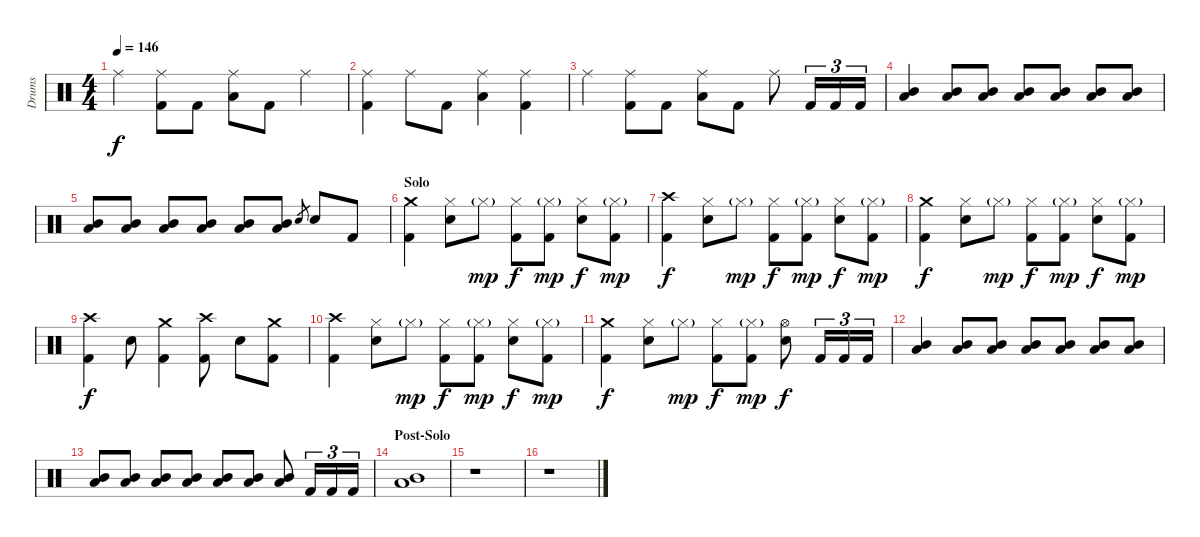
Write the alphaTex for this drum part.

\track ("Drums" "Drums") {instrument percussion}
\staff {score}
\articulation defaults
\ts (4 4)
\tempo 146
\clef neutral
\ks c "Ride (middle)".4{dy f}
("Ride (middle)" "Kick (hit) 2").8 "Kick (hit) 2".8 ("Ride (middle)" "Low Floor Tom (hit)").8 "Kick (hit) 2".8 "Ride (middle)".4 |
("Ride (middle)" "Kick (hit) 2").4 "Ride (middle)".8 "Kick (hit) 2".8 ("Ride (middle)" "Low Floor Tom (hit)").4 ("Ride (middle)" "Kick (hit) 2").4 |
"Ride (middle)".4 ("Ride (middle)" "Kick (hit) 2").8 "Kick (hit) 2".8 ("Ride (middle)" "Low Floor Tom (hit)").8 "Kick (hit) 2".8 "Ride (middle)".8 "Kick (hit) 2".16{tu (3 2)} "Kick (hit) 2".16{tu (3 2)} "Kick (hit) 2".16{tu (3 2)} |
("Mid Tom (hit)" "Low Floor Tom (hit)").4{volume 10} ("Mid Tom (hit)" "Low Floor Tom (hit)").8{volume 8} ("Mid Tom (hit)" "Low Floor Tom (hit)").8{volume 9} ("Mid Tom (hit)" "Low Floor Tom (hit)").8{volume 10} ("Mid Tom (hit)" "Low Floor Tom (hit)").8{volume 11} ("Mid Tom (hit)" "Low Floor Tom (hit)").8{volume 12} ("Mid Tom (hit)" "Low Floor Tom (hit)").8{volume 13} |
("Mid Tom (hit)" "Low Floor Tom (hit)").8{volume 14} ("Mid Tom (hit)" "Low Floor Tom (hit)").8 ("Mid Tom (hit)" "Low Floor Tom (hit)").8 ("Mid Tom (hit)" "Low Floor Tom (hit)").8 ("Mid Tom (hit)" "Low Floor Tom (hit)").8 ("Mid Tom (hit)" "Low Floor Tom (hit)").8 "Snare (hit) 2".8{gr} "Snare (hit) 2".8 "Kick (hit) 2".8 |
\section ("" "Solo")
("Crash medium (hit)" "Kick (hit) 2").4 ("Hi-Hat (closed)" "Snare (hit) 2").8 "Hi-Hat (closed)"{g}.8{dy mp} ("Hi-Hat (closed)" "Kick (hit) 2").8{dy f} ("Hi-Hat (closed)"{g} "Kick (hit) 2").8{dy mp} ("Hi-Hat (closed)" "Snare (hit) 2").8{dy f} ("Hi-Hat (closed)"{g} "Kick (hit) 2").8{dy mp} |
("Crash high (hit)" "Kick (hit) 2").4{dy f} ("Hi-Hat (closed)" "Snare (hit) 2").8 "Hi-Hat (closed)"{g}.8{dy mp} ("Hi-Hat (closed)" "Kick (hit) 2").8{dy f} ("Hi-Hat (closed)"{g} "Kick (hit) 2").8{dy mp} ("Hi-Hat (closed)" "Snare (hit) 2").8{dy f} ("Hi-Hat (closed)"{g} "Kick (hit) 2").8{dy mp} |
("Crash medium (hit)" "Kick (hit) 2").4{dy f} ("Hi-Hat (closed)" "Snare (hit) 2").8 "Hi-Hat (closed)"{g}.8{dy mp} ("Hi-Hat (closed)" "Kick (hit) 2").8{dy f} ("Hi-Hat (closed)"{g} "Kick (hit) 2").8{dy mp} ("Hi-Hat (closed)" "Snare (hit) 2").8{dy f} ("Hi-Hat (closed)"{g} "Kick (hit) 2").8{dy mp} |
("Crash high (hit)" "Kick (hit) 2").4{dy f} "Snare (hit) 2".8 ("Crash medium (hit)" "Kick (hit) 2").4 ("Crash high (hit)" "Kick (hit) 2").8 "Snare (hit) 2".8 ("Crash medium (hit)" "Kick (hit) 2").8 |
("Crash high (hit)" "Kick (hit) 2").4 ("Hi-Hat (closed)" "Snare (hit) 2").8 "Hi-Hat (closed)"{g}.8{dy mp} ("Hi-Hat (closed)" "Kick (hit) 2").8{dy f} ("Hi-Hat (closed)"{g} "Kick (hit) 2").8{dy mp} ("Hi-Hat (closed)" "Snare (hit) 2").8{dy f} ("Hi-Hat (closed)"{g} "Kick (hit) 2").8{dy mp} |
("Crash medium (hit)" "Kick (hit) 2").4{dy f} ("Hi-Hat (closed)" "Snare (hit) 2").8 "Hi-Hat (closed)"{g}.8{dy mp} ("Hi-Hat (closed)" "Kick (hit) 2").8{dy f} ("Hi-Hat (closed)"{g} "Kick (hit) 2").8{dy mp} ("Hi-Hat (open)" "Snare (hit) 2").8{dy f} "Kick (hit) 2".16{tu (3 2)} "Kick (hit) 2".16{tu (3 2)} "Kick (hit) 2".16{tu (3 2)} |
("Mid Tom (hit)" "Low Floor Tom (hit)").4{volume 10} ("Mid Tom (hit)" "Low Floor Tom (hit)").8{volume 8} ("Mid Tom (hit)" "Low Floor Tom (hit)").8{volume 9} ("Mid Tom (hit)" "Low Floor Tom (hit)").8{volume 10} ("Mid Tom (hit)" "Low Floor Tom (hit)").8{volume 11} ("Mid Tom (hit)" "Low Floor Tom (hit)").8{volume 12} ("Mid Tom (hit)" "Low Floor Tom (hit)").8{volume 13} |
("Mid Tom (hit)" "Low Floor Tom (hit)").8{volume 14} ("Mid Tom (hit)" "Low Floor Tom (hit)").8 ("Mid Tom (hit)" "Low Floor Tom (hit)").8 ("Mid Tom (hit)" "Low Floor Tom (hit)").8 ("Mid Tom (hit)" "Low Floor Tom (hit)").8 ("Mid Tom (hit)" "Low Floor Tom (hit)").8 ("Mid Tom (hit)" "Low Floor Tom (hit)").8 "Kick (hit) 2".16{tu (3 2)} "Kick (hit) 2".16{tu (3 2)} "Kick (hit) 2".16{tu (3 2)} |
\section ("" "Post-Solo")
("Mid Tom (hit)" "Low Floor Tom (hit)").1 |
r.1 |
r.1
